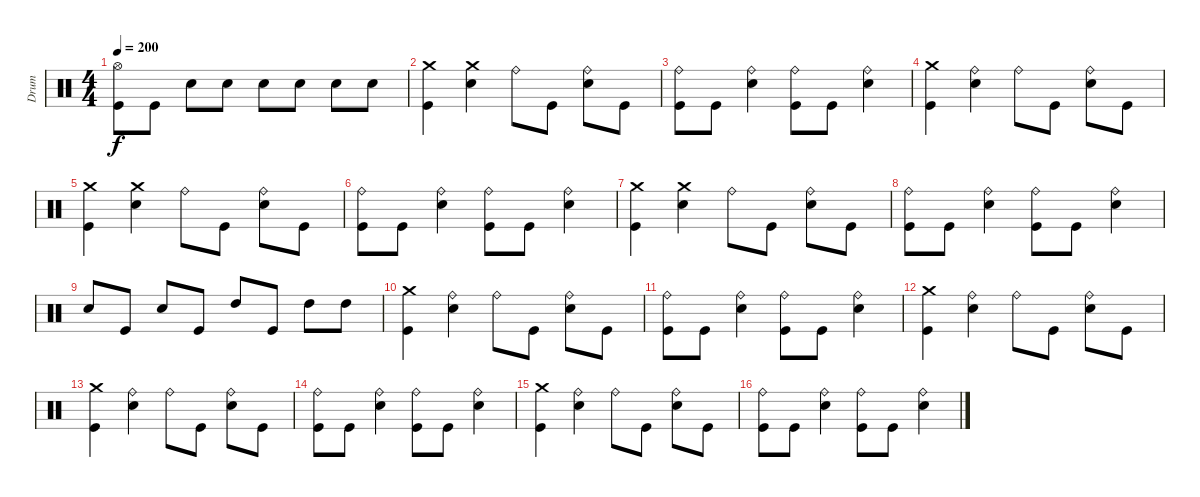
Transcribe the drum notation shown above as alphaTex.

\track ("Drum" "Drum") {instrument percussion}
\staff {score}
\articulation defaults
\ts (4 4)
\tempo 200
\clef neutral
\ks c
("Hi-Hat (open)" "Kick (hit)").8{dy f} "Kick (hit)".8 "Snare (hit) 2".8 "Snare (hit) 2".8 "Snare (hit) 2".8 "Snare (hit) 2".8 "Snare (hit) 2".8 "Snare (hit) 2".8 |
("Crash medium (hit)" "Kick (hit)").4 ("Crash medium (hit)" "Snare (hit) 2").4 "Ride (bell)".8 "Kick (hit)".8 ("Ride (bell)" "Snare (hit) 2").8 "Kick (hit)".8 |
("Ride (bell)" "Kick (hit)").8 "Kick (hit)".8 ("Ride (bell)" "Snare (hit) 2").4 ("Ride (bell)" "Kick (hit)").8 "Kick (hit)".8 ("Ride (bell)" "Snare (hit) 2").4 |
("Crash medium (hit)" "Kick (hit)").4 ("Ride (bell)" "Snare (hit) 2").4 "Ride (bell)".8 "Kick (hit)".8 ("Ride (bell)" "Snare (hit) 2").8 "Kick (hit)".8 |
("Crash medium (hit)" "Kick (hit)").4 ("Crash medium (hit)" "Snare (hit) 2").4 "Ride (bell)".8 "Kick (hit)".8 ("Ride (bell)" "Snare (hit) 2").8 "Kick (hit)".8 |
("Ride (bell)" "Kick (hit)").8 "Kick (hit)".8 ("Ride (bell)" "Snare (hit) 2").4 ("Ride (bell)" "Kick (hit)").8 "Kick (hit)".8 ("Ride (bell)" "Snare (hit) 2").4 |
("Crash medium (hit)" "Kick (hit)").4 ("Crash medium (hit)" "Snare (hit) 2").4 "Ride (bell)".8 "Kick (hit)".8 ("Ride (bell)" "Snare (hit) 2").8 "Kick (hit)".8 |
("Ride (bell)" "Kick (hit)").8 "Kick (hit)".8 ("Ride (bell)" "Snare (hit) 2").4 ("Ride (bell)" "Kick (hit)").8 "Kick (hit)".8 ("Ride (bell)" "Snare (hit) 2").4 |
"Snare (hit) 2".8 "Kick (hit)".8 "Snare (hit) 2".8 "Kick (hit)".8 "High Tom (hit)".8 "Kick (hit)".8 "High Tom (hit)".8 "High Tom (hit)".8 |
("Crash medium (hit)" "Kick (hit)").4 ("Ride (bell)" "Snare (hit) 2").4 "Ride (bell)".8 "Kick (hit)".8 ("Ride (bell)" "Snare (hit) 2").8 "Kick (hit)".8 |
("Ride (bell)" "Kick (hit)").8 "Kick (hit)".8 ("Ride (bell)" "Snare (hit) 2").4 ("Ride (bell)" "Kick (hit)").8 "Kick (hit)".8 ("Ride (bell)" "Snare (hit) 2").4 |
("Crash medium (hit)" "Kick (hit)").4 ("Ride (bell)" "Snare (hit) 2").4 "Ride (bell)".8 "Kick (hit)".8 ("Ride (bell)" "Snare (hit) 2").8 "Kick (hit)".8 |
("Crash medium (hit)" "Kick (hit)").4 ("Ride (bell)" "Snare (hit) 2").4 "Ride (bell)".8 "Kick (hit)".8 ("Ride (bell)" "Snare (hit) 2").8 "Kick (hit)".8 |
("Ride (bell)" "Kick (hit)").8 "Kick (hit)".8 ("Ride (bell)" "Snare (hit) 2").4 ("Ride (bell)" "Kick (hit)").8 "Kick (hit)".8 ("Ride (bell)" "Snare (hit) 2").4 |
("Crash medium (hit)" "Kick (hit)").4 ("Ride (bell)" "Snare (hit) 2").4 "Ride (bell)".8 "Kick (hit)".8 ("Ride (bell)" "Snare (hit) 2").8 "Kick (hit)".8 |
("Ride (bell)" "Kick (hit)").8 "Kick (hit)".8 ("Ride (bell)" "Snare (hit) 2").4 ("Ride (bell)" "Kick (hit)").8 "Kick (hit)".8 ("Ride (bell)" "Snare (hit) 2").4
